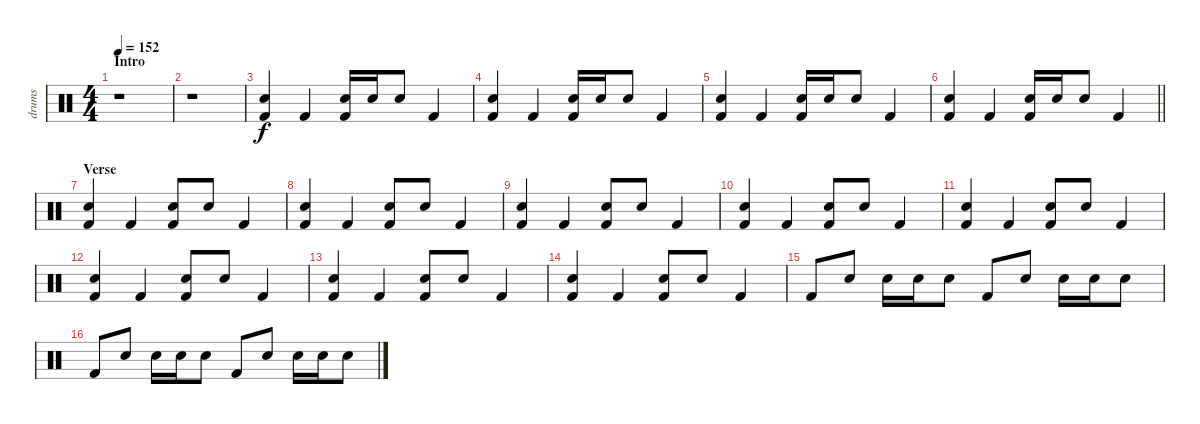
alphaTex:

\track ("drums" "drums") {instrument percussion}
\staff {score}
\articulation defaults
\ts (4 4)
\section ("" "Intro")
\tempo 152
\clef neutral
\ks c
r.1{dy f} |
r.1 |
("Snare (hit) 2" "Kick (hit) 2").4 "Kick (hit) 2".4 ("Snare (hit) 2" "Kick (hit) 2").16 "Snare (hit) 2".16 "Snare (hit) 2".8 "Kick (hit) 2".4 |
("Snare (hit) 2" "Kick (hit) 2").4 "Kick (hit) 2".4 ("Snare (hit) 2" "Kick (hit) 2").16 "Snare (hit) 2".16 "Snare (hit) 2".8 "Kick (hit) 2".4 |
("Snare (hit) 2" "Kick (hit) 2").4 "Kick (hit) 2".4 ("Snare (hit) 2" "Kick (hit) 2").16 "Snare (hit) 2".16 "Snare (hit) 2".8 "Kick (hit) 2".4 |
\barLineRight lightlight
("Snare (hit) 2" "Kick (hit) 2").4 "Kick (hit) 2".4 ("Snare (hit) 2" "Kick (hit) 2").16 "Snare (hit) 2".16 "Snare (hit) 2".8 "Kick (hit) 2".4 |
\section ("" "Verse")
("Snare (hit) 2" "Kick (hit) 2").4 "Kick (hit) 2".4 ("Snare (hit) 2" "Kick (hit) 2").8 "Snare (hit) 2".8 "Kick (hit) 2".4 |
("Snare (hit) 2" "Kick (hit) 2").4 "Kick (hit) 2".4 ("Snare (hit) 2" "Kick (hit) 2").8 "Snare (hit) 2".8 "Kick (hit) 2".4 |
("Snare (hit) 2" "Kick (hit) 2").4 "Kick (hit) 2".4 ("Snare (hit) 2" "Kick (hit) 2").8 "Snare (hit) 2".8 "Kick (hit) 2".4 |
("Snare (hit) 2" "Kick (hit) 2").4 "Kick (hit) 2".4 ("Snare (hit) 2" "Kick (hit) 2").8 "Snare (hit) 2".8 "Kick (hit) 2".4 |
("Snare (hit) 2" "Kick (hit) 2").4 "Kick (hit) 2".4 ("Snare (hit) 2" "Kick (hit) 2").8 "Snare (hit) 2".8 "Kick (hit) 2".4 |
("Snare (hit) 2" "Kick (hit) 2").4 "Kick (hit) 2".4 ("Snare (hit) 2" "Kick (hit) 2").8 "Snare (hit) 2".8 "Kick (hit) 2".4 |
("Snare (hit) 2" "Kick (hit) 2").4 "Kick (hit) 2".4 ("Snare (hit) 2" "Kick (hit) 2").8 "Snare (hit) 2".8 "Kick (hit) 2".4 |
("Snare (hit) 2" "Kick (hit) 2").4 "Kick (hit) 2".4 ("Snare (hit) 2" "Kick (hit) 2").8 "Snare (hit) 2".8 "Kick (hit) 2".4 |
"Kick (hit) 2".8 "Snare (hit) 2".8 "Snare (hit) 2".16 "Snare (hit) 2".16 "Snare (hit) 2".8 "Kick (hit) 2".8 "Snare (hit) 2".8 "Snare (hit) 2".16 "Snare (hit) 2".16 "Snare (hit) 2".8 |
"Kick (hit) 2".8 "Snare (hit) 2".8 "Snare (hit) 2".16 "Snare (hit) 2".16 "Snare (hit) 2".8 "Kick (hit) 2".8 "Snare (hit) 2".8 "Snare (hit) 2".16 "Snare (hit) 2".16 "Snare (hit) 2".8
